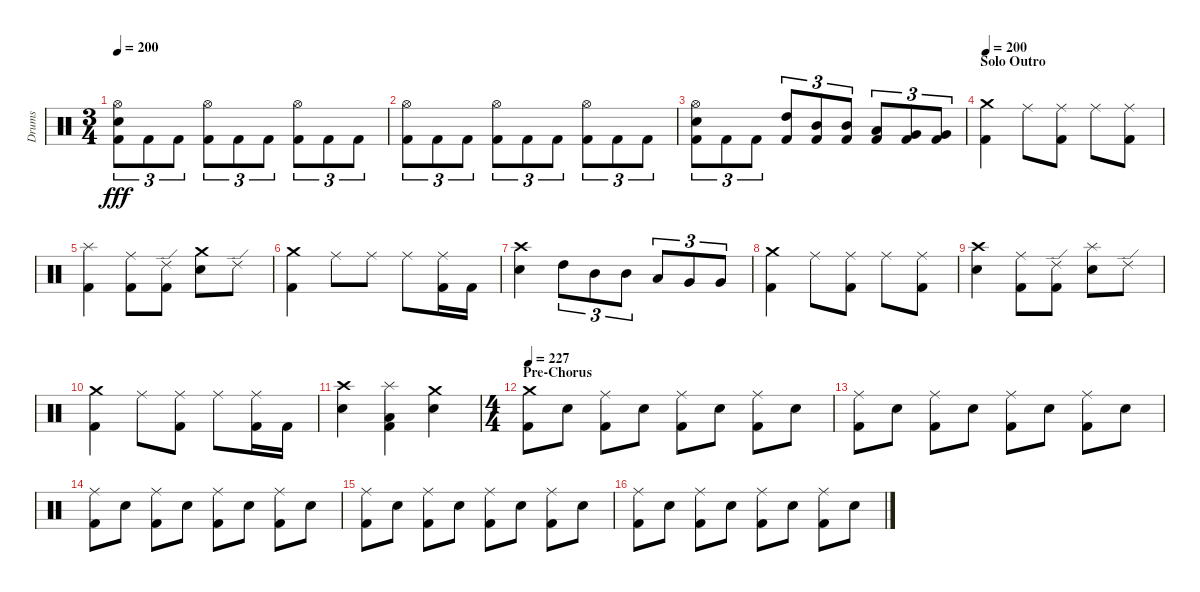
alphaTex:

\track ("Drums" "Drums") {instrument percussion}
\staff {score}
\articulation defaults
\ts (3 4)
\tempo 200
\clef neutral
\ks c
("Kick (hit) 2" "Electric Snare (hit)" "Hi-Hat (open)").8{tu (3 2) dy fff} "Kick (hit) 2".8{tu (3 2)} "Kick (hit) 2".8{tu (3 2)} ("Kick (hit) 2" "Hi-Hat (open)").8{tu (3 2)} "Kick (hit) 2".8{tu (3 2)} "Kick (hit) 2".8{tu (3 2)} ("Kick (hit) 2" "Hi-Hat (open)").8{tu (3 2)} "Kick (hit) 2".8{tu (3 2)} "Kick (hit) 2".8{tu (3 2)} |
("Kick (hit) 2" "Hi-Hat (open)").8{tu (3 2)} "Kick (hit) 2".8{tu (3 2)} "Kick (hit) 2".8{tu (3 2)} ("Kick (hit) 2" "Hi-Hat (open)").8{tu (3 2)} "Kick (hit) 2".8{tu (3 2)} "Kick (hit) 2".8{tu (3 2)} ("Kick (hit) 2" "Hi-Hat (open)").8{tu (3 2)} "Kick (hit) 2".8{tu (3 2)} "Kick (hit) 2".8{tu (3 2)} |
("Kick (hit) 2" "Electric Snare (hit)" "Hi-Hat (open)").8{tu (3 2)} "Kick (hit) 2".8{tu (3 2)} "Kick (hit) 2".8{tu (3 2)} ("Kick (hit) 2" "High Tom (hit)").8{tu (3 2)} ("Kick (hit) 2" "Mid Tom (hit)").8{tu (3 2)} ("Kick (hit) 2" "Mid Tom (hit)").8{tu (3 2)} ("Kick (hit) 2" "Low Tom (hit)").8{tu (3 2)} ("Kick (hit) 2" "Very Low Tom (hit)").8{tu (3 2)} ("Kick (hit) 2" "Very Low Tom (hit)").8{tu (3 2)} |
\section ("" "Solo Outro")
\tempo 200
("Kick (hit) 2" "Crash medium (hit)").4 "Ride (middle)".8 ("Kick (hit) 2" "Ride (middle)").8 "Ride (middle)".8 ("Kick (hit) 2" "Ride (middle)").8 |
("Kick (hit) 2" "Splash (hit)").4 ("Kick (hit) 2" "Ride (middle)").8 ("Kick (hit) 2" "Ride (edge) 2").8 ("Electric Snare (hit)" "Crash medium (hit)").8 "Ride (edge) 2".8 |
("Kick (hit) 2" "Crash medium (hit)").4 "Ride (middle)".8 "Ride (middle)".8 "Ride (middle)".8 ("Kick (hit) 2" "Ride (middle)").16 "Kick (hit) 2".16 |
("Electric Snare (hit)" "Crash high (hit)").4 "High Tom (hit)".8{tu (3 2)} "Mid Tom (hit)".8{tu (3 2)} "Mid Tom (hit)".8{tu (3 2)} "Low Tom (hit)".8{tu (3 2)} "Very Low Tom (hit)".8{tu (3 2)} "Very Low Tom (hit)".8{tu (3 2)} |
("Kick (hit) 2" "Crash medium (hit)").4 "Ride (middle)".8 ("Kick (hit) 2" "Ride (middle)").8 "Ride (middle)".8 ("Kick (hit) 2" "Ride (middle)").8 |
("Electric Snare (hit)" "Crash high (hit)").4 ("Kick (hit) 2" "Ride (middle)").8 ("Kick (hit) 2" "Ride (edge) 2").8 ("Electric Snare (hit)" "Splash (hit)").8 "Ride (edge) 2".8 |
("Kick (hit) 2" "Crash medium (hit)").4 "Ride (middle)".8 ("Kick (hit) 2" "Ride (middle)").8 "Ride (middle)".8 ("Kick (hit) 2" "Ride (middle)").16 "Kick (hit) 2".16 |
("Electric Snare (hit)" "Crash high (hit)").4 ("Kick (hit) 2" "Low Tom (hit)" "Splash (hit)").4 ("Electric Snare (hit)" "Crash medium (hit)").4 |
\ts (4 4)
\section ("" "Pre-Chorus")
\tempo 227
("Kick (hit) 2" "Crash medium (hit)").8 "Electric Snare (hit)".8 ("Kick (hit) 2" "Ride (middle)").8 "Electric Snare (hit)".8 ("Kick (hit) 2" "Ride (middle)").8 "Electric Snare (hit)".8 ("Kick (hit) 2" "Ride (middle)").8 "Electric Snare (hit)".8 |
("Kick (hit) 2" "Ride (middle)").8 "Electric Snare (hit)".8 ("Kick (hit) 2" "Ride (middle)").8 "Electric Snare (hit)".8 ("Kick (hit) 2" "Ride (middle)").8 "Electric Snare (hit)".8 ("Kick (hit) 2" "Ride (middle)").8 "Electric Snare (hit)".8 |
("Kick (hit) 2" "Ride (middle)").8 "Electric Snare (hit)".8 ("Kick (hit) 2" "Ride (middle)").8 "Electric Snare (hit)".8 ("Kick (hit) 2" "Ride (middle)").8 "Electric Snare (hit)".8 ("Kick (hit) 2" "Ride (middle)").8 "Electric Snare (hit)".8 |
("Kick (hit) 2" "Ride (middle)").8 "Electric Snare (hit)".8 ("Kick (hit) 2" "Ride (middle)").8 "Electric Snare (hit)".8 ("Kick (hit) 2" "Ride (middle)").8 "Electric Snare (hit)".8 ("Kick (hit) 2" "Ride (middle)").8 "Electric Snare (hit)".8 |
("Kick (hit) 2" "Ride (middle)").8 "Electric Snare (hit)".8 ("Kick (hit) 2" "Ride (middle)").8 "Electric Snare (hit)".8 ("Kick (hit) 2" "Ride (middle)").8 "Electric Snare (hit)".8 ("Kick (hit) 2" "Ride (middle)").8 "Electric Snare (hit)".8
